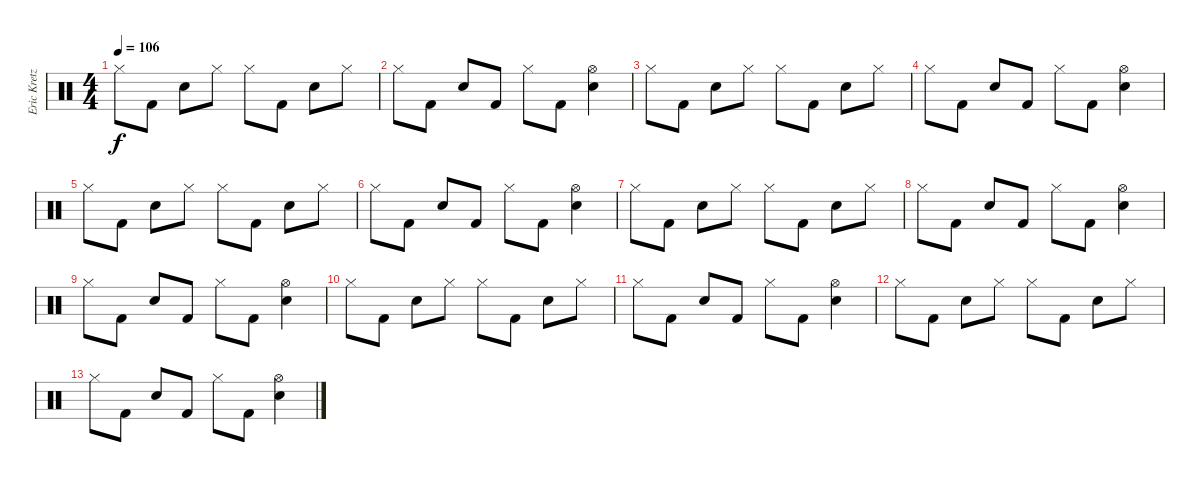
\track ("Eric Kretz" "Eric Kretz") {instrument percussion}
\staff {score}
\articulation defaults
\ts (4 4)
\tempo 106
\clef neutral
\ks c "Hi-Hat (closed)".8{dy f} "Kick (hit) 2".8 "Electric Snare (hit)".8 "Hi-Hat (closed)".8 "Hi-Hat (closed)".8 "Kick (hit) 2".8 "Electric Snare (hit)".8 "Hi-Hat (closed)".8
|
"Hi-Hat (closed)".8 "Kick (hit) 2".8 "Electric Snare (hit)".8 "Kick (hit) 2".8 "Hi-Hat (closed)".8 "Kick (hit) 2".8 ("Hi-Hat (open)" "Electric Snare (hit)").4 |
"Hi-Hat (closed)".8 "Kick (hit) 2".8 "Electric Snare (hit)".8 "Hi-Hat (closed)".8 "Hi-Hat (closed)".8 "Kick (hit) 2".8 "Electric Snare (hit)".8 "Hi-Hat (closed)".8 |
"Hi-Hat (closed)".8 "Kick (hit) 2".8 "Electric Snare (hit)".8 "Kick (hit) 2".8 "Hi-Hat (closed)".8 "Kick (hit) 2".8 ("Hi-Hat (open)" "Electric Snare (hit)").4 |
"Hi-Hat (closed)".8 "Kick (hit) 2".8 "Electric Snare (hit)".8 "Hi-Hat (closed)".8 "Hi-Hat (closed)".8 "Kick (hit) 2".8 "Electric Snare (hit)".8 "Hi-Hat (closed)".8 |
"Hi-Hat (closed)".8 "Kick (hit) 2".8 "Electric Snare (hit)".8 "Kick (hit) 2".8 "Hi-Hat (closed)".8 "Kick (hit) 2".8 ("Hi-Hat (open)" "Electric Snare (hit)").4 |
"Hi-Hat (closed)".8 "Kick (hit) 2".8 "Electric Snare (hit)".8 "Hi-Hat (closed)".8 "Hi-Hat (closed)".8 "Kick (hit) 2".8 "Electric Snare (hit)".8 "Hi-Hat (closed)".8 |
"Hi-Hat (closed)".8 "Kick (hit) 2".8 "Electric Snare (hit)".8 "Kick (hit) 2".8 "Hi-Hat (closed)".8 "Kick (hit) 2".8 ("Hi-Hat (open)" "Electric Snare (hit)").4 |
"Hi-Hat (closed)".8 "Kick (hit) 2".8 "Electric Snare (hit)".8 "Kick (hit) 2".8 "Hi-Hat (closed)".8 "Kick (hit) 2".8 ("Hi-Hat (open)" "Electric Snare (hit)").4 |
"Hi-Hat (closed)".8 "Kick (hit) 2".8 "Electric Snare (hit)".8 "Hi-Hat (closed)".8 "Hi-Hat (closed)".8 "Kick (hit) 2".8 "Electric Snare (hit)".8 "Hi-Hat (closed)".8 |
"Hi-Hat (closed)".8 "Kick (hit) 2".8 "Electric Snare (hit)".8 "Kick (hit) 2".8 "Hi-Hat (closed)".8 "Kick (hit) 2".8 ("Hi-Hat (open)" "Electric Snare (hit)").4 |
"Hi-Hat (closed)".8 "Kick (hit) 2".8 "Electric Snare (hit)".8 "Hi-Hat (closed)".8 "Hi-Hat (closed)".8 "Kick (hit) 2".8 "Electric Snare (hit)".8 "Hi-Hat (closed)".8 |
"Hi-Hat (closed)".8 "Kick (hit) 2".8 "Electric Snare (hit)".8 "Kick (hit) 2".8 "Hi-Hat (closed)".8 "Kick (hit) 2".8 ("Hi-Hat (open)" "Electric Snare (hit)").4
